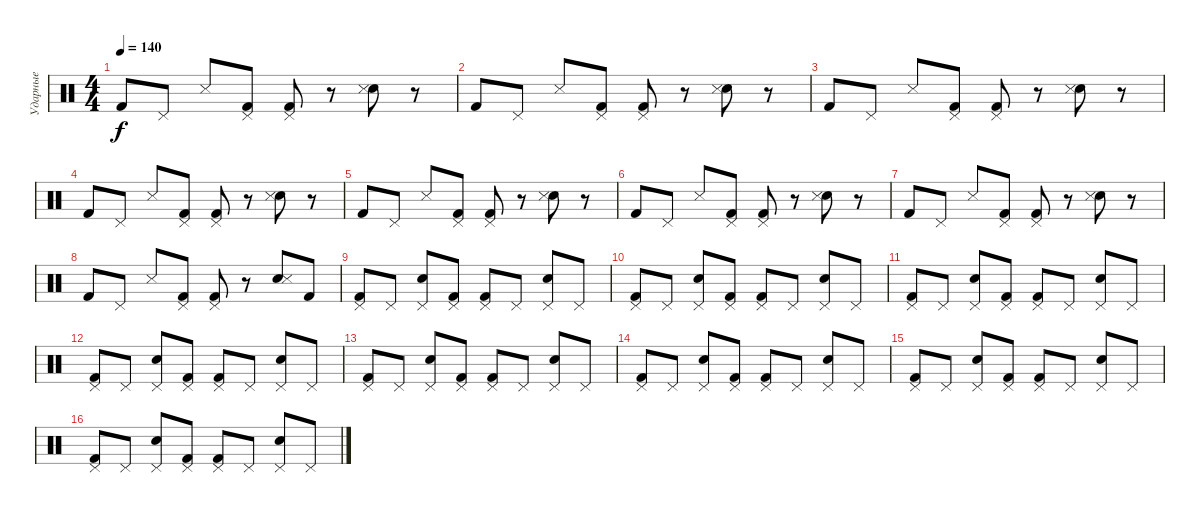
\track ("Ударные" "Ударные") {instrument percussion}
\staff {score}
\articulation defaults
\ts (4 4)
\tempo 140
\clef neutral
\ks c "Kick (hit) 2".8{dy f} "Pedal Hi-Hat (hit)".8 "Metronome (hit)".8
("Kick (hit) 2" "Pedal Hi-Hat (hit)").8 ("Kick (hit) 2" "Pedal Hi-Hat (hit)").8 r.8 ("Electric Snare (hit)" "Metronome (hit)").8 r.8 |
"Kick (hit) 2".8 "Pedal Hi-Hat (hit)".8 "Metronome (hit)".8 ("Kick (hit) 2" "Pedal Hi-Hat (hit)").8 ("Kick (hit) 2" "Pedal Hi-Hat (hit)").8 r.8 ("Electric Snare (hit)" "Metronome (hit)").8 r.8 |
"Kick (hit) 2".8 "Pedal Hi-Hat (hit)".8 "Metronome (hit)".8 ("Kick (hit) 2" "Pedal Hi-Hat (hit)").8 ("Kick (hit) 2" "Pedal Hi-Hat (hit)").8 r.8 ("Electric Snare (hit)" "Metronome (hit)").8 r.8 |
"Kick (hit) 2".8 "Pedal Hi-Hat (hit)".8 "Metronome (hit)".8 ("Kick (hit) 2" "Pedal Hi-Hat (hit)").8 ("Kick (hit) 2" "Pedal Hi-Hat (hit)").8 r.8 ("Electric Snare (hit)" "Metronome (hit)").8 r.8 |
"Kick (hit) 2".8 "Pedal Hi-Hat (hit)".8 "Metronome (hit)".8 ("Kick (hit) 2" "Pedal Hi-Hat (hit)").8 ("Kick (hit) 2" "Pedal Hi-Hat (hit)").8 r.8 ("Electric Snare (hit)" "Metronome (hit)").8 r.8 |
"Kick (hit) 2".8 "Pedal Hi-Hat (hit)".8 "Metronome (hit)".8 ("Kick (hit) 2" "Pedal Hi-Hat (hit)").8 ("Kick (hit) 2" "Pedal Hi-Hat (hit)").8 r.8 ("Electric Snare (hit)" "Metronome (hit)").8 r.8 |
"Kick (hit) 2".8 "Pedal Hi-Hat (hit)".8 "Metronome (hit)".8 ("Kick (hit) 2" "Pedal Hi-Hat (hit)").8 ("Kick (hit) 2" "Pedal Hi-Hat (hit)").8 r.8 ("Electric Snare (hit)" "Metronome (hit)").8 r.8 |
"Kick (hit) 2".8 "Pedal Hi-Hat (hit)".8 "Metronome (hit)".8 ("Kick (hit) 2" "Pedal Hi-Hat (hit)").8 ("Kick (hit) 2" "Pedal Hi-Hat (hit)").8 r.8 ("Electric Snare (hit)" "Metronome (hit)").8 "Kick (hit) 2".8 |
("Kick (hit) 2" "Pedal Hi-Hat (hit)").8 "Pedal Hi-Hat (hit)".8 ("Pedal Hi-Hat (hit)" "Electric Snare (hit)").8 ("Kick (hit) 2" "Pedal Hi-Hat (hit)").8 ("Kick (hit) 2" "Pedal Hi-Hat (hit)").8 "Pedal Hi-Hat (hit)".8 ("Pedal Hi-Hat (hit)" "Electric Snare (hit)").8 "Pedal Hi-Hat (hit)".8 |
("Kick (hit) 2" "Pedal Hi-Hat (hit)").8 "Pedal Hi-Hat (hit)".8 ("Pedal Hi-Hat (hit)" "Electric Snare (hit)").8 ("Kick (hit) 2" "Pedal Hi-Hat (hit)").8 ("Kick (hit) 2" "Pedal Hi-Hat (hit)").8 "Pedal Hi-Hat (hit)".8 ("Pedal Hi-Hat (hit)" "Electric Snare (hit)").8 "Pedal Hi-Hat (hit)".8 |
("Kick (hit) 2" "Pedal Hi-Hat (hit)").8 "Pedal Hi-Hat (hit)".8 ("Pedal Hi-Hat (hit)" "Electric Snare (hit)").8 ("Kick (hit) 2" "Pedal Hi-Hat (hit)").8 ("Kick (hit) 2" "Pedal Hi-Hat (hit)").8 "Pedal Hi-Hat (hit)".8 ("Pedal Hi-Hat (hit)" "Electric Snare (hit)").8 "Pedal Hi-Hat (hit)".8 |
("Kick (hit) 2" "Pedal Hi-Hat (hit)").8 "Pedal Hi-Hat (hit)".8 ("Pedal Hi-Hat (hit)" "Electric Snare (hit)").8 ("Kick (hit) 2" "Pedal Hi-Hat (hit)").8 ("Kick (hit) 2" "Pedal Hi-Hat (hit)").8 "Pedal Hi-Hat (hit)".8 ("Pedal Hi-Hat (hit)" "Electric Snare (hit)").8 "Pedal Hi-Hat (hit)".8 |
("Kick (hit) 2" "Pedal Hi-Hat (hit)").8 "Pedal Hi-Hat (hit)".8 ("Pedal Hi-Hat (hit)" "Electric Snare (hit)").8 ("Kick (hit) 2" "Pedal Hi-Hat (hit)").8 ("Kick (hit) 2" "Pedal Hi-Hat (hit)").8 "Pedal Hi-Hat (hit)".8 ("Pedal Hi-Hat (hit)" "Electric Snare (hit)").8 "Pedal Hi-Hat (hit)".8 |
("Kick (hit) 2" "Pedal Hi-Hat (hit)").8 "Pedal Hi-Hat (hit)".8 ("Pedal Hi-Hat (hit)" "Electric Snare (hit)").8 ("Kick (hit) 2" "Pedal Hi-Hat (hit)").8 ("Kick (hit) 2" "Pedal Hi-Hat (hit)").8 "Pedal Hi-Hat (hit)".8 ("Pedal Hi-Hat (hit)" "Electric Snare (hit)").8 "Pedal Hi-Hat (hit)".8 |
("Kick (hit) 2" "Pedal Hi-Hat (hit)").8 "Pedal Hi-Hat (hit)".8 ("Pedal Hi-Hat (hit)" "Electric Snare (hit)").8 ("Kick (hit) 2" "Pedal Hi-Hat (hit)").8 ("Kick (hit) 2" "Pedal Hi-Hat (hit)").8 "Pedal Hi-Hat (hit)".8 ("Pedal Hi-Hat (hit)" "Electric Snare (hit)").8 "Pedal Hi-Hat (hit)".8 |
("Kick (hit) 2" "Pedal Hi-Hat (hit)").8 "Pedal Hi-Hat (hit)".8 ("Pedal Hi-Hat (hit)" "Electric Snare (hit)").8 ("Kick (hit) 2" "Pedal Hi-Hat (hit)").8 ("Kick (hit) 2" "Pedal Hi-Hat (hit)").8 "Pedal Hi-Hat (hit)".8 ("Pedal Hi-Hat (hit)" "Electric Snare (hit)").8 "Pedal Hi-Hat (hit)".8
